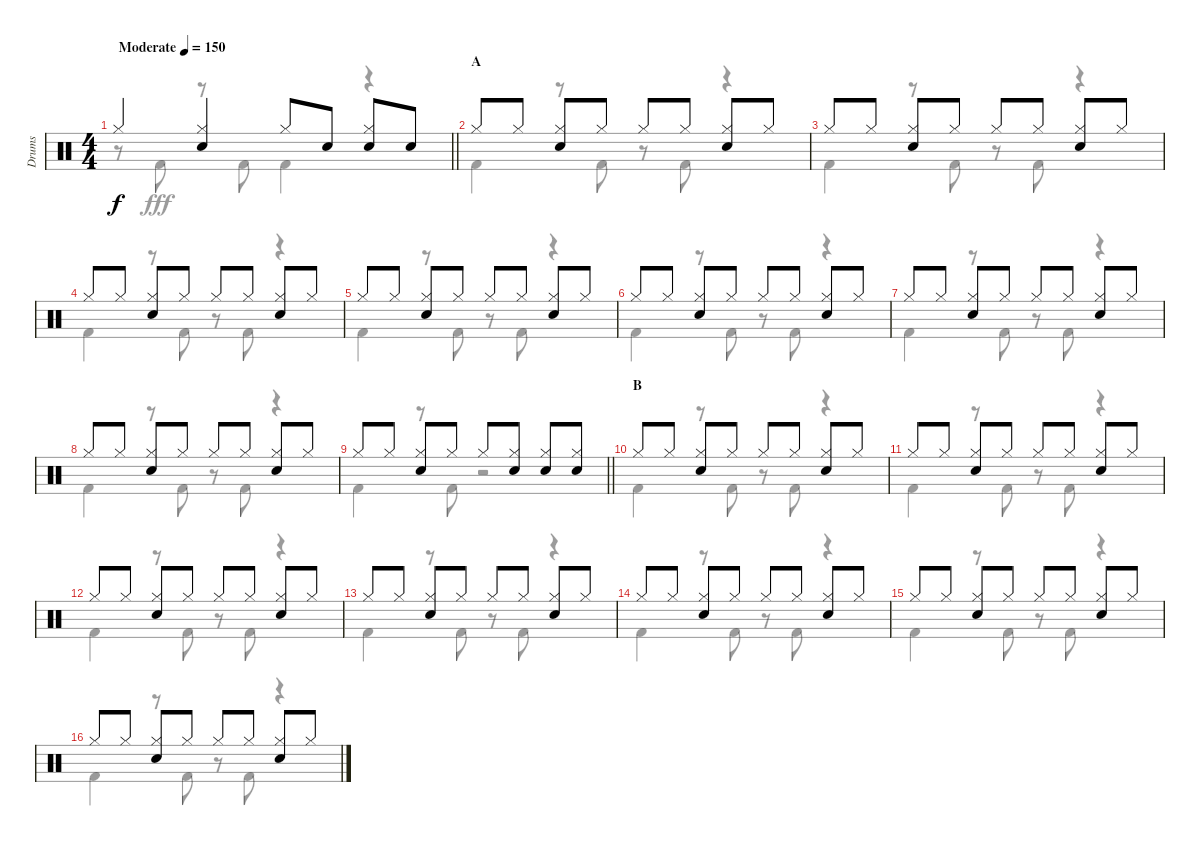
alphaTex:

\track ("Drums" "Drums") {instrument percussion}
\staff {score}
\articulation defaults
\voice
\ts (4 4)
\tempo (150 "Moderate")
\clef neutral
\barLineRight lightlight
\ks c "Hi-Hat (closed)".4{dy f}
("Hi-Hat (closed)" "Electric Snare (hit)").4 "Hi-Hat (closed)".8 "Electric Snare (hit)".8 ("Hi-Hat (closed)" "Electric Snare (hit)").8 "Electric Snare (hit)".8 |
\section ("" "A")
"Hi-Hat (closed)".8 "Hi-Hat (closed)".8 ("Hi-Hat (closed)" "Electric Snare (hit)").8 "Hi-Hat (closed)".8 "Hi-Hat (closed)".8 "Hi-Hat (closed)".8 ("Hi-Hat (closed)" "Electric Snare (hit)").8 "Hi-Hat (closed)".8 |
"Hi-Hat (closed)".8 "Hi-Hat (closed)".8 ("Hi-Hat (closed)" "Electric Snare (hit)").8 "Hi-Hat (closed)".8 "Hi-Hat (closed)".8 "Hi-Hat (closed)".8 ("Hi-Hat (closed)" "Electric Snare (hit)").8 "Hi-Hat (closed)".8 |
"Hi-Hat (closed)".8 "Hi-Hat (closed)".8 ("Hi-Hat (closed)" "Electric Snare (hit)").8 "Hi-Hat (closed)".8 "Hi-Hat (closed)".8 "Hi-Hat (closed)".8 ("Hi-Hat (closed)" "Electric Snare (hit)").8 "Hi-Hat (closed)".8 |
"Hi-Hat (closed)".8 "Hi-Hat (closed)".8 ("Hi-Hat (closed)" "Electric Snare (hit)").8 "Hi-Hat (closed)".8 "Hi-Hat (closed)".8 "Hi-Hat (closed)".8 ("Hi-Hat (closed)" "Electric Snare (hit)").8 "Hi-Hat (closed)".8 |
"Hi-Hat (closed)".8 "Hi-Hat (closed)".8 ("Hi-Hat (closed)" "Electric Snare (hit)").8 "Hi-Hat (closed)".8 "Hi-Hat (closed)".8 "Hi-Hat (closed)".8 ("Hi-Hat (closed)" "Electric Snare (hit)").8 "Hi-Hat (closed)".8 |
"Hi-Hat (closed)".8 "Hi-Hat (closed)".8 ("Hi-Hat (closed)" "Electric Snare (hit)").8 "Hi-Hat (closed)".8 "Hi-Hat (closed)".8 "Hi-Hat (closed)".8 ("Hi-Hat (closed)" "Electric Snare (hit)").8 "Hi-Hat (closed)".8 |
"Hi-Hat (closed)".8 "Hi-Hat (closed)".8 ("Hi-Hat (closed)" "Electric Snare (hit)").8 "Hi-Hat (closed)".8 "Hi-Hat (closed)".8 "Hi-Hat (closed)".8 ("Hi-Hat (closed)" "Electric Snare (hit)").8 "Hi-Hat (closed)".8 |
\barLineRight lightlight "Hi-Hat (closed)".8 "Hi-Hat (closed)".8
("Hi-Hat (closed)" "Electric Snare (hit)").8 "Hi-Hat (closed)".8 "Hi-Hat (closed)".8 ("Hi-Hat (closed)" "Electric Snare (hit)").8 ("Hi-Hat (closed)" "Electric Snare (hit)").8 ("Hi-Hat (closed)" "Electric Snare (hit)").8 |
\section ("" "B")
"Hi-Hat (closed)".8 "Hi-Hat (closed)".8 ("Hi-Hat (closed)" "Electric Snare (hit)").8 "Hi-Hat (closed)".8 "Hi-Hat (closed)".8 "Hi-Hat (closed)".8 ("Hi-Hat (closed)" "Electric Snare (hit)").8 "Hi-Hat (closed)".8 |
"Hi-Hat (closed)".8 "Hi-Hat (closed)".8 ("Hi-Hat (closed)" "Electric Snare (hit)").8 "Hi-Hat (closed)".8 "Hi-Hat (closed)".8 "Hi-Hat (closed)".8 ("Hi-Hat (closed)" "Electric Snare (hit)").8 "Hi-Hat (closed)".8 |
"Hi-Hat (closed)".8 "Hi-Hat (closed)".8 ("Hi-Hat (closed)" "Electric Snare (hit)").8 "Hi-Hat (closed)".8 "Hi-Hat (closed)".8 "Hi-Hat (closed)".8 ("Hi-Hat (closed)" "Electric Snare (hit)").8 "Hi-Hat (closed)".8 |
"Hi-Hat (closed)".8 "Hi-Hat (closed)".8 ("Hi-Hat (closed)" "Electric Snare (hit)").8 "Hi-Hat (closed)".8 "Hi-Hat (closed)".8 "Hi-Hat (closed)".8 ("Hi-Hat (closed)" "Electric Snare (hit)").8 "Hi-Hat (closed)".8 |
"Hi-Hat (closed)".8 "Hi-Hat (closed)".8 ("Hi-Hat (closed)" "Electric Snare (hit)").8 "Hi-Hat (closed)".8 "Hi-Hat (closed)".8 "Hi-Hat (closed)".8 ("Hi-Hat (closed)" "Electric Snare (hit)").8 "Hi-Hat (closed)".8 |
"Hi-Hat (closed)".8 "Hi-Hat (closed)".8 ("Hi-Hat (closed)" "Electric Snare (hit)").8 "Hi-Hat (closed)".8 "Hi-Hat (closed)".8 "Hi-Hat (closed)".8 ("Hi-Hat (closed)" "Electric Snare (hit)").8 "Hi-Hat (closed)".8 |
"Hi-Hat (closed)".8 "Hi-Hat (closed)".8 ("Hi-Hat (closed)" "Electric Snare (hit)").8 "Hi-Hat (closed)".8 "Hi-Hat (closed)".8 "Hi-Hat (closed)".8 ("Hi-Hat (closed)" "Electric Snare (hit)").8 "Hi-Hat (closed)".8
\voice
\clef neutral
\ottava regular
\simile none
\barLineRight lightlight
\ks c
r.8{dy fff} "Kick (hit) 2".8 r.8 "Kick (hit) 2".8 "Kick (hit) 2".4 r.4 |
"Kick (hit) 2".4 r.8 "Kick (hit) 2".8 r.8 "Kick (hit) 2".8 r.4 |
"Kick (hit) 2".4 r.8 "Kick (hit) 2".8 r.8 "Kick (hit) 2".8 r.4 |
"Kick (hit) 2".4 r.8 "Kick (hit) 2".8 r.8 "Kick (hit) 2".8 r.4 |
"Kick (hit) 2".4 r.8 "Kick (hit) 2".8 r.8 "Kick (hit) 2".8 r.4 |
"Kick (hit) 2".4 r.8 "Kick (hit) 2".8 r.8 "Kick (hit) 2".8 r.4 |
"Kick (hit) 2".4 r.8 "Kick (hit) 2".8 r.8 "Kick (hit) 2".8 r.4 |
"Kick (hit) 2".4 r.8 "Kick (hit) 2".8 r.8 "Kick (hit) 2".8 r.4 |
\barLineRight lightlight "Kick (hit) 2".4
r.8 "Kick (hit) 2".8 r.2 |
"Kick (hit) 2".4 r.8 "Kick (hit) 2".8 r.8 "Kick (hit) 2".8 r.4 |
"Kick (hit) 2".4 r.8 "Kick (hit) 2".8 r.8 "Kick (hit) 2".8 r.4 |
"Kick (hit) 2".4 r.8 "Kick (hit) 2".8 r.8 "Kick (hit) 2".8 r.4 |
"Kick (hit) 2".4 r.8 "Kick (hit) 2".8 r.8 "Kick (hit) 2".8 r.4 |
"Kick (hit) 2".4 r.8 "Kick (hit) 2".8 r.8 "Kick (hit) 2".8 r.4 |
"Kick (hit) 2".4 r.8 "Kick (hit) 2".8 r.8 "Kick (hit) 2".8 r.4 |
"Kick (hit) 2".4 r.8 "Kick (hit) 2".8 r.8 "Kick (hit) 2".8 r.4
